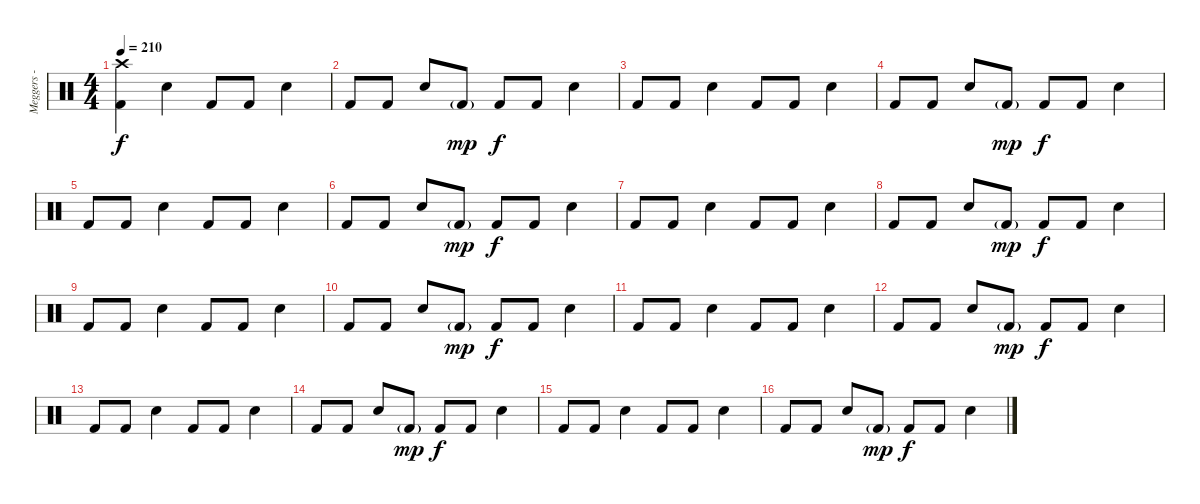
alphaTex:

\track ("Meggers - Drums" "Meggers - ") {instrument percussion}
\staff {score}
\articulation defaults
\ts (4 4)
\tempo 210
\clef neutral
\ks c
("Crash high (hit)" "Kick (hit) 2").4{dy f} "Electric Snare (hit)".4 "Kick (hit) 2".8 "Kick (hit) 2".8 "Electric Snare (hit)".4 |
"Kick (hit) 2".8 "Kick (hit) 2".8 "Electric Snare (hit)".8 "Kick (hit) 2"{g}.8{dy mp} "Kick (hit) 2".8{dy f} "Kick (hit) 2".8 "Electric Snare (hit)".4 |
"Kick (hit) 2".8 "Kick (hit) 2".8 "Electric Snare (hit)".4 "Kick (hit) 2".8 "Kick (hit) 2".8 "Electric Snare (hit)".4 |
"Kick (hit) 2".8 "Kick (hit) 2".8 "Electric Snare (hit)".8 "Kick (hit) 2"{g}.8{dy mp} "Kick (hit) 2".8{dy f} "Kick (hit) 2".8 "Electric Snare (hit)".4 |
"Kick (hit) 2".8 "Kick (hit) 2".8 "Electric Snare (hit)".4 "Kick (hit) 2".8 "Kick (hit) 2".8 "Electric Snare (hit)".4 |
"Kick (hit) 2".8 "Kick (hit) 2".8 "Electric Snare (hit)".8 "Kick (hit) 2"{g}.8{dy mp} "Kick (hit) 2".8{dy f} "Kick (hit) 2".8 "Electric Snare (hit)".4 |
"Kick (hit) 2".8 "Kick (hit) 2".8 "Electric Snare (hit)".4 "Kick (hit) 2".8 "Kick (hit) 2".8 "Electric Snare (hit)".4 |
"Kick (hit) 2".8 "Kick (hit) 2".8 "Electric Snare (hit)".8 "Kick (hit) 2"{g}.8{dy mp} "Kick (hit) 2".8{dy f} "Kick (hit) 2".8 "Electric Snare (hit)".4 |
"Kick (hit) 2".8 "Kick (hit) 2".8 "Electric Snare (hit)".4 "Kick (hit) 2".8 "Kick (hit) 2".8 "Electric Snare (hit)".4 |
"Kick (hit) 2".8 "Kick (hit) 2".8 "Electric Snare (hit)".8 "Kick (hit) 2"{g}.8{dy mp} "Kick (hit) 2".8{dy f} "Kick (hit) 2".8 "Electric Snare (hit)".4 |
"Kick (hit) 2".8 "Kick (hit) 2".8 "Electric Snare (hit)".4 "Kick (hit) 2".8 "Kick (hit) 2".8 "Electric Snare (hit)".4 |
"Kick (hit) 2".8 "Kick (hit) 2".8 "Electric Snare (hit)".8 "Kick (hit) 2"{g}.8{dy mp} "Kick (hit) 2".8{dy f} "Kick (hit) 2".8 "Electric Snare (hit)".4 |
"Kick (hit) 2".8 "Kick (hit) 2".8 "Electric Snare (hit)".4 "Kick (hit) 2".8 "Kick (hit) 2".8 "Electric Snare (hit)".4 |
"Kick (hit) 2".8 "Kick (hit) 2".8 "Electric Snare (hit)".8 "Kick (hit) 2"{g}.8{dy mp} "Kick (hit) 2".8{dy f} "Kick (hit) 2".8 "Electric Snare (hit)".4 |
"Kick (hit) 2".8 "Kick (hit) 2".8 "Electric Snare (hit)".4 "Kick (hit) 2".8 "Kick (hit) 2".8 "Electric Snare (hit)".4 |
"Kick (hit) 2".8 "Kick (hit) 2".8 "Electric Snare (hit)".8 "Kick (hit) 2"{g}.8{dy mp} "Kick (hit) 2".8{dy f} "Kick (hit) 2".8 "Electric Snare (hit)".4
